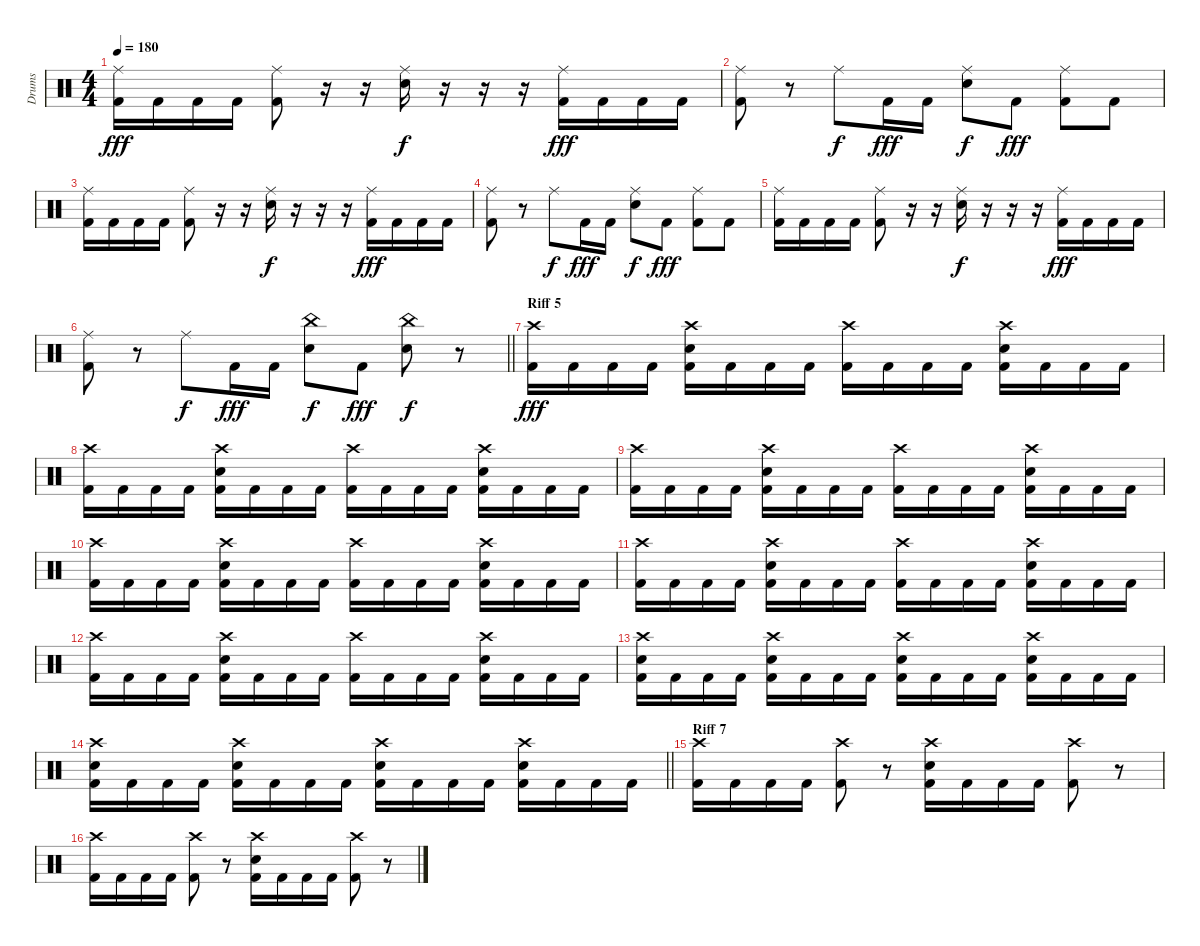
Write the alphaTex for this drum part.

\track ("Drums" "Drums") {instrument percussion}
\staff {score}
\articulation defaults
\ts (4 4)
\tempo 180
\clef neutral
\ks c
("Ride (middle)" "Kick (hit) 2").16{dy fff} "Kick (hit) 2".16 "Kick (hit) 2".16 "Kick (hit) 2".16 ("Ride (middle)" "Kick (hit) 2").8 r.16 r.16 ("Ride (middle)" "Electric Snare (hit)").16{dy f} r.16 r.16 r.16 ("Ride (middle)" "Kick (hit) 2").16{dy fff} "Kick (hit) 2".16 "Kick (hit) 2".16 "Kick (hit) 2".16 |
("Ride (middle)" "Kick (hit) 2").8 r.8 "Ride (middle)".8{dy f} "Kick (hit) 2".16{dy fff} "Kick (hit) 2".16 ("Ride (middle)" "Electric Snare (hit)").8{dy f} "Kick (hit) 2".8{dy fff} ("Ride (middle)" "Kick (hit) 2").8 "Kick (hit) 2".8 |
("Ride (middle)" "Kick (hit) 2").16 "Kick (hit) 2".16 "Kick (hit) 2".16 "Kick (hit) 2".16 ("Ride (middle)" "Kick (hit) 2").8 r.16 r.16 ("Ride (middle)" "Electric Snare (hit)").16{dy f} r.16 r.16 r.16 ("Ride (middle)" "Kick (hit) 2").16{dy fff} "Kick (hit) 2".16 "Kick (hit) 2".16 "Kick (hit) 2".16 |
("Ride (middle)" "Kick (hit) 2").8 r.8 "Ride (middle)".8{dy f} "Kick (hit) 2".16{dy fff} "Kick (hit) 2".16 ("Ride (middle)" "Electric Snare (hit)").8{dy f} "Kick (hit) 2".8{dy fff} ("Ride (middle)" "Kick (hit) 2").8 "Kick (hit) 2".8 |
("Ride (middle)" "Kick (hit) 2").16 "Kick (hit) 2".16 "Kick (hit) 2".16 "Kick (hit) 2".16 ("Ride (middle)" "Kick (hit) 2").8 r.16 r.16 ("Ride (middle)" "Electric Snare (hit)").16{dy f} r.16 r.16 r.16 ("Ride (middle)" "Kick (hit) 2").16{dy fff} "Kick (hit) 2".16 "Kick (hit) 2".16 "Kick (hit) 2".16 |
\barLineRight lightlight
("Ride (middle)" "Kick (hit) 2").8 r.8 "Ride (middle)".8{dy f} "Kick (hit) 2".16{dy fff} "Kick (hit) 2".16 ("China (hit)" "Electric Snare (hit)").8{dy f} "Kick (hit) 2".8{dy fff} ("China (hit)" "Electric Snare (hit)").8{dy f} r.8 |
\section ("" "Riff 5")
("Crash high (hit)" "Kick (hit) 2").16{dy fff} "Kick (hit) 2".16 "Kick (hit) 2".16 "Kick (hit) 2".16 ("Crash high (hit)" "Electric Snare (hit)" "Kick (hit) 2").16 "Kick (hit) 2".16 "Kick (hit) 2".16 "Kick (hit) 2".16 ("Crash high (hit)" "Kick (hit) 2").16 "Kick (hit) 2".16 "Kick (hit) 2".16 "Kick (hit) 2".16 ("Crash high (hit)" "Electric Snare (hit)" "Kick (hit) 2").16 "Kick (hit) 2".16 "Kick (hit) 2".16 "Kick (hit) 2".16 |
("Crash high (hit)" "Kick (hit) 2").16 "Kick (hit) 2".16 "Kick (hit) 2".16 "Kick (hit) 2".16 ("Crash high (hit)" "Electric Snare (hit)" "Kick (hit) 2").16 "Kick (hit) 2".16 "Kick (hit) 2".16 "Kick (hit) 2".16 ("Crash high (hit)" "Kick (hit) 2").16 "Kick (hit) 2".16 "Kick (hit) 2".16 "Kick (hit) 2".16 ("Crash high (hit)" "Electric Snare (hit)" "Kick (hit) 2").16 "Kick (hit) 2".16 "Kick (hit) 2".16 "Kick (hit) 2".16 |
("Crash high (hit)" "Kick (hit) 2").16 "Kick (hit) 2".16 "Kick (hit) 2".16 "Kick (hit) 2".16 ("Crash high (hit)" "Electric Snare (hit)" "Kick (hit) 2").16 "Kick (hit) 2".16 "Kick (hit) 2".16 "Kick (hit) 2".16 ("Crash high (hit)" "Kick (hit) 2").16 "Kick (hit) 2".16 "Kick (hit) 2".16 "Kick (hit) 2".16 ("Crash high (hit)" "Electric Snare (hit)" "Kick (hit) 2").16 "Kick (hit) 2".16 "Kick (hit) 2".16 "Kick (hit) 2".16 |
("Crash high (hit)" "Kick (hit) 2").16 "Kick (hit) 2".16 "Kick (hit) 2".16 "Kick (hit) 2".16 ("Crash high (hit)" "Electric Snare (hit)" "Kick (hit) 2").16 "Kick (hit) 2".16 "Kick (hit) 2".16 "Kick (hit) 2".16 ("Crash high (hit)" "Kick (hit) 2").16 "Kick (hit) 2".16 "Kick (hit) 2".16 "Kick (hit) 2".16 ("Crash high (hit)" "Electric Snare (hit)" "Kick (hit) 2").16 "Kick (hit) 2".16 "Kick (hit) 2".16 "Kick (hit) 2".16 |
("Crash high (hit)" "Kick (hit) 2").16 "Kick (hit) 2".16 "Kick (hit) 2".16 "Kick (hit) 2".16 ("Crash high (hit)" "Electric Snare (hit)" "Kick (hit) 2").16 "Kick (hit) 2".16 "Kick (hit) 2".16 "Kick (hit) 2".16 ("Crash high (hit)" "Kick (hit) 2").16 "Kick (hit) 2".16 "Kick (hit) 2".16 "Kick (hit) 2".16 ("Crash high (hit)" "Electric Snare (hit)" "Kick (hit) 2").16 "Kick (hit) 2".16 "Kick (hit) 2".16 "Kick (hit) 2".16 |
("Crash high (hit)" "Kick (hit) 2").16 "Kick (hit) 2".16 "Kick (hit) 2".16 "Kick (hit) 2".16 ("Crash high (hit)" "Electric Snare (hit)" "Kick (hit) 2").16 "Kick (hit) 2".16 "Kick (hit) 2".16 "Kick (hit) 2".16 ("Crash high (hit)" "Kick (hit) 2").16 "Kick (hit) 2".16 "Kick (hit) 2".16 "Kick (hit) 2".16 ("Crash high (hit)" "Electric Snare (hit)" "Kick (hit) 2").16 "Kick (hit) 2".16 "Kick (hit) 2".16 "Kick (hit) 2".16 |
("Crash high (hit)" "Electric Snare (hit)" "Kick (hit) 2").16 "Kick (hit) 2".16 "Kick (hit) 2".16 "Kick (hit) 2".16 ("Crash high (hit)" "Electric Snare (hit)" "Kick (hit) 2").16 "Kick (hit) 2".16 "Kick (hit) 2".16 "Kick (hit) 2".16 ("Crash high (hit)" "Electric Snare (hit)" "Kick (hit) 2").16 "Kick (hit) 2".16 "Kick (hit) 2".16 "Kick (hit) 2".16 ("Crash high (hit)" "Electric Snare (hit)" "Kick (hit) 2").16 "Kick (hit) 2".16 "Kick (hit) 2".16 "Kick (hit) 2".16 |
\barLineRight lightlight
("Crash high (hit)" "Electric Snare (hit)" "Kick (hit) 2").16 "Kick (hit) 2".16 "Kick (hit) 2".16 "Kick (hit) 2".16 ("Crash high (hit)" "Electric Snare (hit)" "Kick (hit) 2").16 "Kick (hit) 2".16 "Kick (hit) 2".16 "Kick (hit) 2".16 ("Crash high (hit)" "Electric Snare (hit)" "Kick (hit) 2").16 "Kick (hit) 2".16 "Kick (hit) 2".16 "Kick (hit) 2".16 ("Crash high (hit)" "Electric Snare (hit)" "Kick (hit) 2").16 "Kick (hit) 2".16 "Kick (hit) 2".16 "Kick (hit) 2".16 |
\section ("" "Riff 7")
("Crash high (hit)" "Kick (hit) 2").16 "Kick (hit) 2".16 "Kick (hit) 2".16 "Kick (hit) 2".16 ("Crash high (hit)" "Kick (hit) 2").8 r.8 ("Crash high (hit)" "Electric Snare (hit)" "Kick (hit) 2").16 "Kick (hit) 2".16 "Kick (hit) 2".16 "Kick (hit) 2".16 ("Crash high (hit)" "Kick (hit) 2").8 r.8 |
("Crash high (hit)" "Kick (hit) 2").16 "Kick (hit) 2".16 "Kick (hit) 2".16 "Kick (hit) 2".16 ("Crash high (hit)" "Kick (hit) 2").8 r.8 ("Crash high (hit)" "Electric Snare (hit)" "Kick (hit) 2").16 "Kick (hit) 2".16 "Kick (hit) 2".16 "Kick (hit) 2".16 ("Crash high (hit)" "Kick (hit) 2").8 r.8
